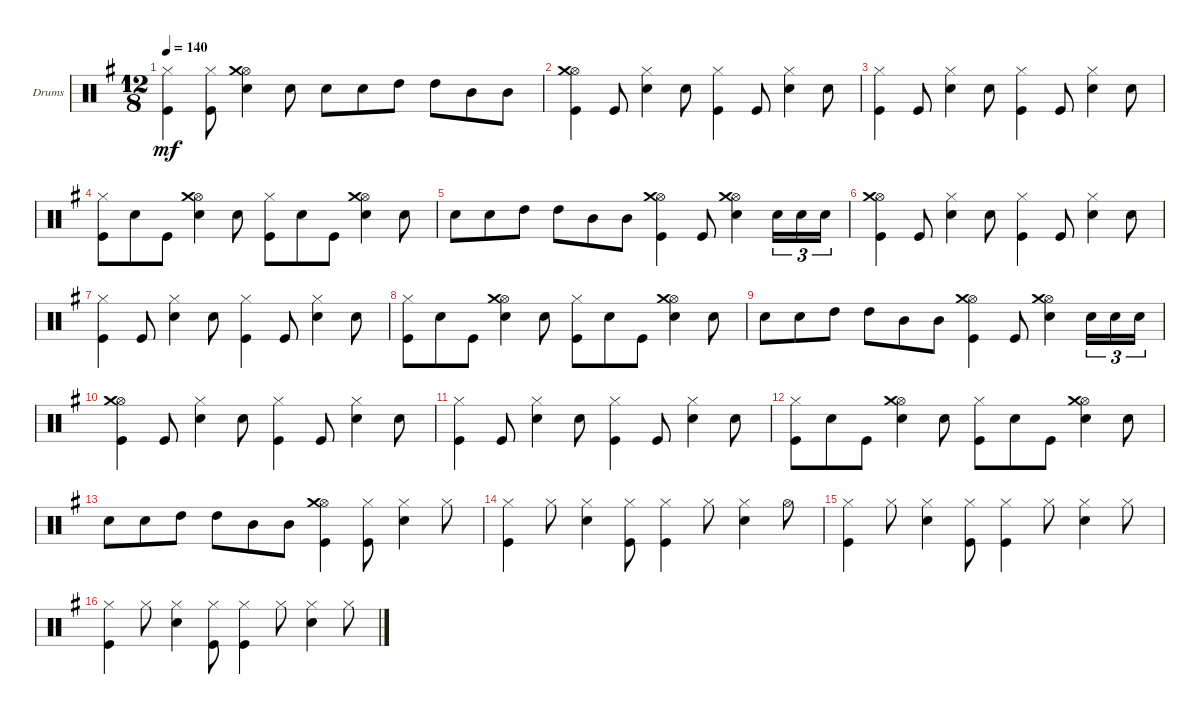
\defaultSystemsLayout 4
\bracketExtendMode groupsimilarinstruments
\firstSystemTrackNameOrientation horizontal
\otherSystemsTrackNameOrientation horizontal
\track ("Drumkit" "Drums") {instrument percussion}
\staff {score}
\articulation defaults
\ts (12 8)
\tempo 140
\clef neutral
\ks g
("Kick (hit)" "Hi-Hat (closed)").4{dy mf} ("Hi-Hat (closed)" "Kick (hit)").8 ("Snare (hit) 2" "Hi-Hat (open)" "Crash medium (hit)").4 "Snare (hit) 2".8 "Snare (hit) 2".8 "Snare (hit) 2".8 "High Tom (hit)".8 "High Tom (hit)".8 "Mid Tom (hit)".8 "Mid Tom (hit)".8 |
("Hi-Hat (open)" "Crash medium (hit)" "Kick (hit)").4 "Kick (hit)".8 ("Hi-Hat (closed)" "Snare (hit) 2").4 "Snare (hit) 2".8 ("Hi-Hat (closed)" "Kick (hit)").4 "Kick (hit)".8 ("Snare (hit) 2" "Hi-Hat (closed)").4 "Snare (hit) 2".8 |
("Hi-Hat (closed)" "Kick (hit)").4 "Kick (hit)".8 ("Snare (hit) 2" "Hi-Hat (closed)").4 "Snare (hit) 2".8 ("Hi-Hat (closed)" "Kick (hit)").4 "Kick (hit)".8 ("Snare (hit) 2" "Hi-Hat (closed)").4 "Snare (hit) 2".8 |
("Hi-Hat (closed)" "Kick (hit)").8 "Snare (hit) 2".8 "Kick (hit)".8 ("Snare (hit) 2" "Hi-Hat (open)" "Crash medium (hit)").4 "Snare (hit) 2".8 ("Hi-Hat (closed)" "Kick (hit)").8 "Snare (hit) 2".8 "Kick (hit)".8 ("Snare (hit) 2" "Hi-Hat (open)" "Crash medium (hit)").4 "Snare (hit) 2".8 |
"Snare (hit) 2".8 "Snare (hit) 2".8 "High Tom (hit)".8 "High Tom (hit)".8 "Mid Tom (hit)".8 "Mid Tom (hit)".8 ("Kick (hit)" "Hi-Hat (open)" "Crash medium (hit)").4 "Kick (hit)".8 ("Snare (hit) 2" "Hi-Hat (open)" "Crash medium (hit)").4 "Snare (hit) 2".16{tu (3 2)} "Snare (hit) 2".16{tu (3 2)} "Snare (hit) 2".16{tu (3 2)} |
("Hi-Hat (open)" "Kick (hit)" "Crash medium (hit)").4 "Kick (hit)".8 ("Hi-Hat (closed)" "Snare (hit) 2").4 "Snare (hit) 2".8 ("Hi-Hat (closed)" "Kick (hit)").4 "Kick (hit)".8 ("Hi-Hat (closed)" "Snare (hit) 2").4 "Snare (hit) 2".8 |
("Hi-Hat (closed)" "Kick (hit)").4 "Kick (hit)".8 ("Hi-Hat (closed)" "Snare (hit) 2").4 "Snare (hit) 2".8 ("Hi-Hat (closed)" "Kick (hit)").4 "Kick (hit)".8 ("Hi-Hat (closed)" "Snare (hit) 2").4 "Snare (hit) 2".8 |
("Hi-Hat (closed)" "Kick (hit)").8 "Snare (hit) 2".8 "Kick (hit)".8 ("Snare (hit) 2" "Hi-Hat (open)" "Crash medium (hit)").4 "Snare (hit) 2".8 ("Hi-Hat (closed)" "Kick (hit)").8 "Snare (hit) 2".8 "Kick (hit)".8 ("Snare (hit) 2" "Hi-Hat (open)" "Crash medium (hit)").4 "Snare (hit) 2".8 |
"Snare (hit) 2".8 "Snare (hit) 2".8 "High Tom (hit)".8 "High Tom (hit)".8 "Mid Tom (hit)".8 "Mid Tom (hit)".8 ("Kick (hit)" "Hi-Hat (open)" "Crash medium (hit)").4 "Kick (hit)".8 ("Snare (hit) 2" "Hi-Hat (open)" "Crash medium (hit)").4 "Snare (hit) 2".16{tu (3 2)} "Snare (hit) 2".16{tu (3 2)} "Snare (hit) 2".16{tu (3 2)} |
("Hi-Hat (open)" "Kick (hit)" "Crash medium (hit)").4 "Kick (hit)".8 ("Hi-Hat (closed)" "Snare (hit) 2").4 "Snare (hit) 2".8 ("Hi-Hat (closed)" "Kick (hit)").4 "Kick (hit)".8 ("Hi-Hat (closed)" "Snare (hit) 2").4 "Snare (hit) 2".8 |
("Hi-Hat (closed)" "Kick (hit)").4 "Kick (hit)".8 ("Hi-Hat (closed)" "Snare (hit) 2").4 "Snare (hit) 2".8 ("Hi-Hat (closed)" "Kick (hit)").4 "Kick (hit)".8 ("Hi-Hat (closed)" "Snare (hit) 2").4 "Snare (hit) 2".8 |
("Hi-Hat (closed)" "Kick (hit)").8 "Snare (hit) 2".8 "Kick (hit)".8 ("Snare (hit) 2" "Hi-Hat (open)" "Crash medium (hit)").4 "Snare (hit) 2".8 ("Hi-Hat (closed)" "Kick (hit)").8 "Snare (hit) 2".8 "Kick (hit)".8 ("Snare (hit) 2" "Hi-Hat (open)" "Crash medium (hit)").4 "Snare (hit) 2".8 |
"Snare (hit) 2".8 "Snare (hit) 2".8 "High Tom (hit)".8 "High Tom (hit)".8 "Mid Tom (hit)".8 "Mid Tom (hit)".8 ("Kick (hit)" "Hi-Hat (open)" "Crash medium (hit)").4 ("Kick (hit)" "Hi-Hat (closed)").8 ("Snare (hit) 2" "Hi-Hat (closed)").4 "Hi-Hat (closed)".8 |
("Hi-Hat (closed)" "Kick (hit)").4 "Hi-Hat (closed)".8 ("Hi-Hat (closed)" "Snare (hit) 2").4 ("Hi-Hat (closed)" "Kick (hit)").8 ("Kick (hit)" "Hi-Hat (closed)").4 "Hi-Hat (closed)".8 ("Hi-Hat (closed)" "Snare (hit) 2").4 "Hi-Hat (open)".8 |
("Hi-Hat (closed)" "Kick (hit)").4 "Hi-Hat (closed)".8 ("Hi-Hat (closed)" "Snare (hit) 2").4 ("Hi-Hat (closed)" "Kick (hit)").8 ("Kick (hit)" "Hi-Hat (closed)").4 "Hi-Hat (closed)".8 ("Hi-Hat (closed)" "Snare (hit) 2").4 "Hi-Hat (closed)".8 |
("Hi-Hat (closed)" "Kick (hit)").4 "Hi-Hat (closed)".8 ("Hi-Hat (closed)" "Snare (hit) 2").4 ("Hi-Hat (closed)" "Kick (hit)").8 ("Kick (hit)" "Hi-Hat (closed)").4 "Hi-Hat (closed)".8 ("Hi-Hat (closed)" "Snare (hit) 2").4 "Hi-Hat (closed)".8
